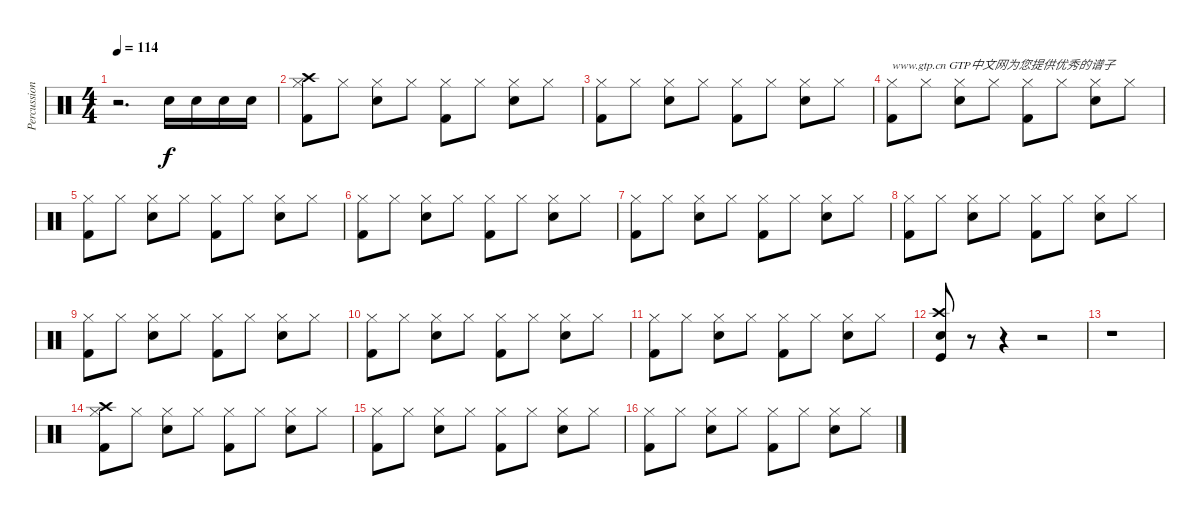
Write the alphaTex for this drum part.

\track ("Percussion" "Percussion") {instrument percussion}
\staff {score}
\articulation defaults
\ts (4 4)
\tempo 114
\clef neutral
\ks c
r.2{d dy f} "Snare (hit) 2".16 "Snare (hit) 2".16 "Snare (hit) 2".16 "Snare (hit) 2".16 |
("Crash high (hit)" "Hi-Hat (closed)" "Kick (hit) 2").8 "Hi-Hat (closed)".8 ("Hi-Hat (closed)" "Snare (hit) 2").8 "Hi-Hat (closed)".8 ("Hi-Hat (closed)" "Kick (hit) 2").8 "Hi-Hat (closed)".8 ("Hi-Hat (closed)" "Snare (hit) 2").8 "Hi-Hat (closed)".8 |
("Hi-Hat (closed)" "Kick (hit) 2").8 "Hi-Hat (closed)".8 ("Hi-Hat (closed)" "Snare (hit) 2").8 "Hi-Hat (closed)".8 ("Hi-Hat (closed)" "Kick (hit) 2").8 "Hi-Hat (closed)".8 ("Hi-Hat (closed)" "Snare (hit) 2").8 "Hi-Hat (closed)".8 |
("Hi-Hat (closed)" "Kick (hit) 2").8{txt "www.gtp.cn GTP中文网为您提供优秀的谱子"} "Hi-Hat (closed)".8 ("Hi-Hat (closed)" "Snare (hit) 2").8 "Hi-Hat (closed)".8 ("Hi-Hat (closed)" "Kick (hit) 2").8 "Hi-Hat (closed)".8 ("Hi-Hat (closed)" "Snare (hit) 2").8 "Hi-Hat (closed)".8 |
("Hi-Hat (closed)" "Kick (hit) 2").8 "Hi-Hat (closed)".8 ("Hi-Hat (closed)" "Snare (hit) 2").8 "Hi-Hat (closed)".8 ("Hi-Hat (closed)" "Kick (hit) 2").8 "Hi-Hat (closed)".8 ("Hi-Hat (closed)" "Snare (hit) 2").8 "Hi-Hat (closed)".8 |
("Hi-Hat (closed)" "Kick (hit) 2").8 "Hi-Hat (closed)".8 ("Hi-Hat (closed)" "Snare (hit) 2").8 "Hi-Hat (closed)".8 ("Hi-Hat (closed)" "Kick (hit) 2").8 "Hi-Hat (closed)".8 ("Hi-Hat (closed)" "Snare (hit) 2").8 "Hi-Hat (closed)".8 |
("Hi-Hat (closed)" "Kick (hit) 2").8 "Hi-Hat (closed)".8 ("Hi-Hat (closed)" "Snare (hit) 2").8 "Hi-Hat (closed)".8 ("Hi-Hat (closed)" "Kick (hit) 2").8 "Hi-Hat (closed)".8 ("Hi-Hat (closed)" "Snare (hit) 2").8 "Hi-Hat (closed)".8 |
("Hi-Hat (closed)" "Kick (hit) 2").8 "Hi-Hat (closed)".8 ("Hi-Hat (closed)" "Snare (hit) 2").8 "Hi-Hat (closed)".8 ("Hi-Hat (closed)" "Kick (hit) 2").8 "Hi-Hat (closed)".8 ("Hi-Hat (closed)" "Snare (hit) 2").8 "Hi-Hat (closed)".8 |
("Hi-Hat (closed)" "Kick (hit) 2").8 "Hi-Hat (closed)".8 ("Hi-Hat (closed)" "Snare (hit) 2").8 "Hi-Hat (closed)".8 ("Hi-Hat (closed)" "Kick (hit) 2").8 "Hi-Hat (closed)".8 ("Hi-Hat (closed)" "Snare (hit) 2").8 "Hi-Hat (closed)".8 |
("Hi-Hat (closed)" "Kick (hit) 2").8 "Hi-Hat (closed)".8 ("Hi-Hat (closed)" "Snare (hit) 2").8 "Hi-Hat (closed)".8 ("Hi-Hat (closed)" "Kick (hit) 2").8 "Hi-Hat (closed)".8 ("Hi-Hat (closed)" "Snare (hit) 2").8 "Hi-Hat (closed)".8 |
("Hi-Hat (closed)" "Kick (hit) 2").8 "Hi-Hat (closed)".8 ("Hi-Hat (closed)" "Snare (hit) 2").8 "Hi-Hat (closed)".8 ("Hi-Hat (closed)" "Kick (hit) 2").8 "Hi-Hat (closed)".8 ("Hi-Hat (closed)" "Snare (hit) 2").8 "Hi-Hat (closed)".8 |
("Crash high (hit)" "Snare (hit) 2" "Kick (hit)").8 r.8 r.4 r.2 |
r.1 |
("Crash high (hit)" "Hi-Hat (closed)" "Kick (hit) 2").8 "Hi-Hat (closed)".8 ("Hi-Hat (closed)" "Snare (hit) 2").8 "Hi-Hat (closed)".8 ("Hi-Hat (closed)" "Kick (hit) 2").8 "Hi-Hat (closed)".8 ("Hi-Hat (closed)" "Snare (hit) 2").8 "Hi-Hat (closed)".8 |
("Hi-Hat (closed)" "Kick (hit) 2").8 "Hi-Hat (closed)".8 ("Hi-Hat (closed)" "Snare (hit) 2").8 "Hi-Hat (closed)".8 ("Hi-Hat (closed)" "Kick (hit) 2").8 "Hi-Hat (closed)".8 ("Hi-Hat (closed)" "Snare (hit) 2").8 "Hi-Hat (closed)".8 |
("Hi-Hat (closed)" "Kick (hit) 2").8 "Hi-Hat (closed)".8 ("Hi-Hat (closed)" "Snare (hit) 2").8 "Hi-Hat (closed)".8 ("Hi-Hat (closed)" "Kick (hit) 2").8 "Hi-Hat (closed)".8 ("Hi-Hat (closed)" "Snare (hit) 2").8 "Hi-Hat (closed)".8
